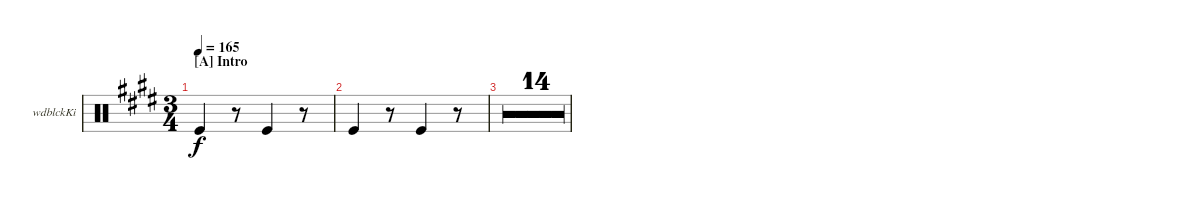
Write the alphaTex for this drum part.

\defaultSystemsLayout 4
\bracketExtendMode groupsimilarinstruments
\firstSystemTrackNameOrientation horizontal
\otherSystemsTrackNameOrientation horizontal
\track ("Woodblock" "wdblckKi") {multiBarRest instrument percussion}
\staff {score}
\articulation defaults
\ts (3 4)
\section ("A" "Intro")
\tempo 165
\clef neutral
\ks e "Kick (hit)".4{dy f}
r.8 "Kick (hit)".4 r.8 |
"Kick (hit)".4 r.8 "Kick (hit)".4 r.8 |
r.2{d} |
r.2{d} |
r.2{d} |
r.2{d} |
r.2{d} |
r.2{d} |
r.2{d} |
r.2{d} |
r.2{d} |
r.2{d} |
r.2{d} |
r.2{d} |
r.2{d} |
r.2{d}
